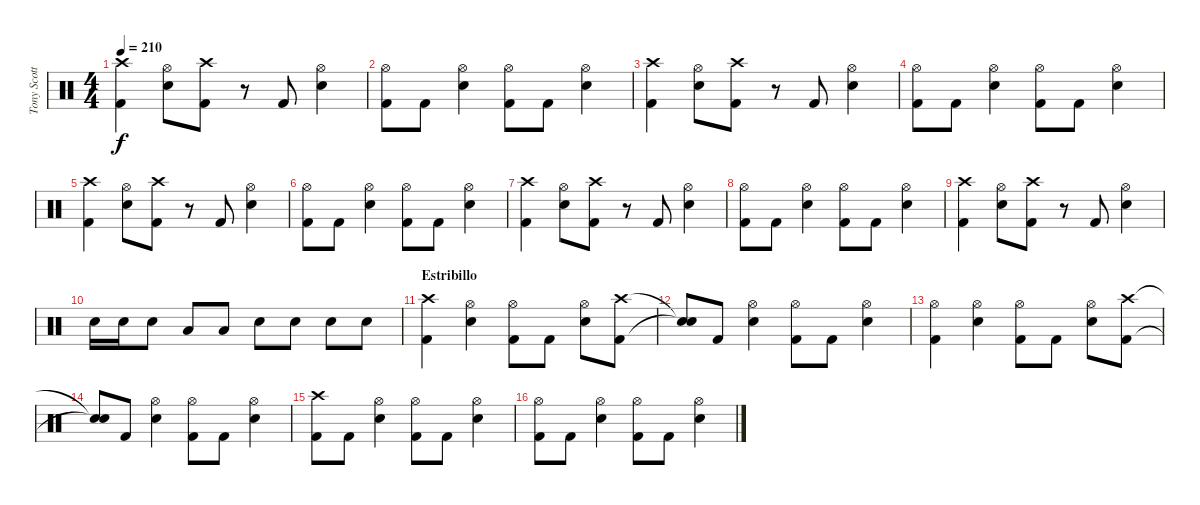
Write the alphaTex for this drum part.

\track ("Tony Scotto" "Tony Scott") {instrument percussion}
\staff {score}
\articulation defaults
\ts (4 4)
\tempo 210
\clef neutral
\ks c
("Crash high (hit)" "Kick (hit) 2").4{dy f} ("Hi-Hat (open)" "Snare (hit) 2").8 ("Crash high (hit)" "Kick (hit) 2").8 r.8 "Kick (hit) 2".8 ("Hi-Hat (open)" "Snare (hit) 2").4 |
("Hi-Hat (open)" "Kick (hit) 2").8 "Kick (hit) 2".8 ("Hi-Hat (open)" "Snare (hit) 2").4 ("Hi-Hat (open)" "Kick (hit) 2").8 "Kick (hit) 2".8 ("Hi-Hat (open)" "Snare (hit) 2").4 |
("Crash high (hit)" "Kick (hit) 2").4 ("Hi-Hat (open)" "Snare (hit) 2").8 ("Crash high (hit)" "Kick (hit) 2").8 r.8 "Kick (hit) 2".8 ("Hi-Hat (open)" "Snare (hit) 2").4 |
("Hi-Hat (open)" "Kick (hit) 2").8 "Kick (hit) 2".8 ("Hi-Hat (open)" "Snare (hit) 2").4 ("Hi-Hat (open)" "Kick (hit) 2").8 "Kick (hit) 2".8 ("Hi-Hat (open)" "Snare (hit) 2").4 |
("Crash high (hit)" "Kick (hit) 2").4 ("Hi-Hat (open)" "Snare (hit) 2").8 ("Crash high (hit)" "Kick (hit) 2").8 r.8 "Kick (hit) 2".8 ("Hi-Hat (open)" "Snare (hit) 2").4 |
("Hi-Hat (open)" "Kick (hit) 2").8 "Kick (hit) 2".8 ("Hi-Hat (open)" "Snare (hit) 2").4 ("Hi-Hat (open)" "Kick (hit) 2").8 "Kick (hit) 2".8 ("Hi-Hat (open)" "Snare (hit) 2").4 |
("Crash high (hit)" "Kick (hit) 2").4 ("Hi-Hat (open)" "Snare (hit) 2").8 ("Crash high (hit)" "Kick (hit) 2").8 r.8 "Kick (hit) 2".8 ("Hi-Hat (open)" "Snare (hit) 2").4 |
("Hi-Hat (open)" "Kick (hit) 2").8 "Kick (hit) 2".8 ("Hi-Hat (open)" "Snare (hit) 2").4 ("Hi-Hat (open)" "Kick (hit) 2").8 "Kick (hit) 2".8 ("Hi-Hat (open)" "Snare (hit) 2").4 |
("Crash high (hit)" "Kick (hit) 2").4 ("Hi-Hat (open)" "Snare (hit) 2").8 ("Crash high (hit)" "Kick (hit) 2").8 r.8 "Kick (hit) 2".8 ("Hi-Hat (open)" "Snare (hit) 2").4 |
"Snare (hit) 2".16 "Snare (hit) 2".16 "Snare (hit) 2".8 "Low Tom (hit)".8 "Low Floor Tom (hit)".8 "Snare (hit) 2".8 "Snare (hit) 2".8 "Snare (hit) 2".8 "Snare (hit) 2".8 |
\section ("" "Estribillo")
("Crash high (hit)" "Kick (hit) 2").4 ("Hi-Hat (open)" "Snare (hit) 2").4 ("Hi-Hat (open)" "Kick (hit) 2").8 "Kick (hit) 2".8 ("Hi-Hat (open)" "Snare (hit) 2").8 ("Crash high (hit)" "Kick (hit) 2").8 |
("Snare (hit)"{t} "Snare (hit)"{t}).8 "Kick (hit) 2".8 ("Hi-Hat (open)" "Snare (hit) 2").4 ("Hi-Hat (open)" "Kick (hit) 2").8 "Kick (hit) 2".8 ("Hi-Hat (open)" "Snare (hit) 2").4 |
("Hi-Hat (open)" "Kick (hit) 2").4 ("Hi-Hat (open)" "Snare (hit) 2").4 ("Hi-Hat (open)" "Kick (hit) 2").8 "Kick (hit) 2".8 ("Hi-Hat (open)" "Snare (hit) 2").8 ("Crash high (hit)" "Kick (hit) 2").8 |
("Snare (hit)"{t} "Snare (hit)"{t}).8 "Kick (hit) 2".8 ("Hi-Hat (open)" "Snare (hit) 2").4 ("Hi-Hat (open)" "Kick (hit) 2").8 "Kick (hit) 2".8 ("Hi-Hat (open)" "Snare (hit) 2").4 |
("Crash high (hit)" "Kick (hit) 2").8 "Kick (hit) 2".8 ("Hi-Hat (open)" "Snare (hit) 2").4 ("Hi-Hat (open)" "Kick (hit) 2").8 "Kick (hit) 2".8 ("Hi-Hat (open)" "Snare (hit) 2").4 |
("Hi-Hat (open)" "Kick (hit) 2").8 "Kick (hit) 2".8 ("Hi-Hat (open)" "Snare (hit) 2").4 ("Hi-Hat (open)" "Kick (hit) 2").8 "Kick (hit) 2".8 ("Hi-Hat (open)" "Snare (hit) 2").4
